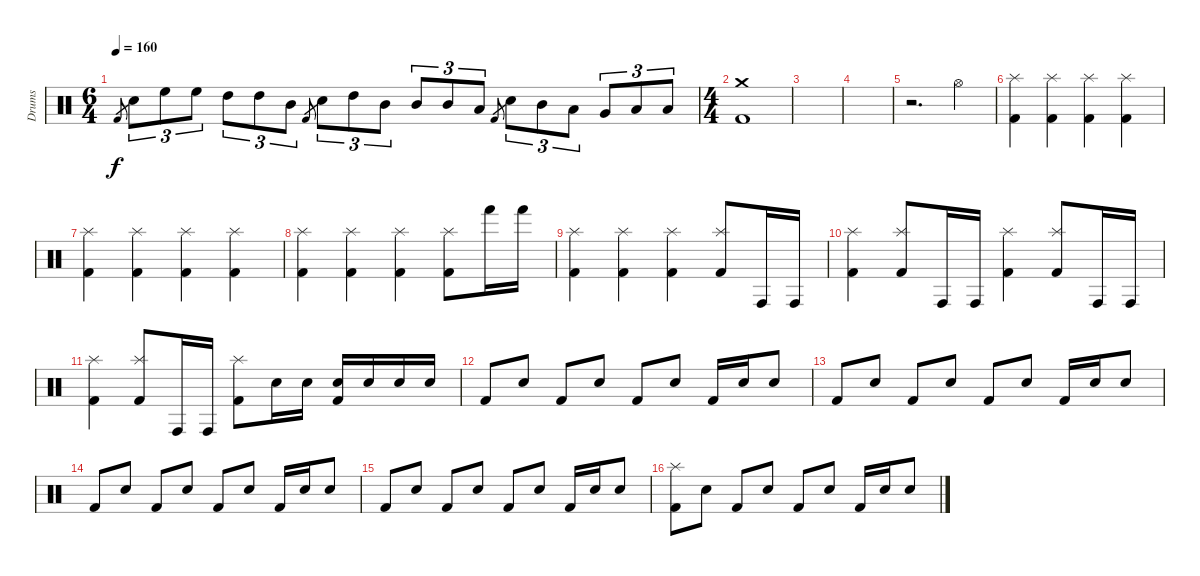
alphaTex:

\track ("Drums" "Drums") {instrument percussion}
\staff {score}
\articulation defaults
\ts (6 4)
\tempo 160
\clef neutral
\ks c "Kick (hit) 2".8{gr dy f} "Snare (hit) 2".8{tu (3 2)} "High Floor Tom (hit)".8{tu (3 2)} "High Floor Tom (hit)".8{tu (3 2)} "High Tom (hit)".8{tu (3 2)} "High Tom (hit)".8{tu (3 2)} "Mid Tom (hit)".8{tu (3 2)} "Kick (hit) 2".8{gr} "Snare (hit) 2".8{tu (3 2)} "High Tom (hit)".8{tu (3 2)} "Mid Tom (hit)".8{tu (3 2)} "Mid Tom (hit)".8{tu (3 2)} "Mid Tom (hit)".8{tu (3 2)} "Low Tom (hit)".8{tu (3 2)} "Kick (hit) 2".8{gr} "Snare (hit) 2".8{tu (3 2)} "Mid Tom (hit)".8{tu (3 2)} "Low Tom (hit)".8{tu (3 2)} "Very Low Tom (hit)".8{tu (3 2)} "Low Floor Tom (hit)".8{tu (3 2)} "Low Floor Tom (hit)".8{tu (3 2)}
|
\ts (4 4)
("Crash medium (hit)" "Kick (hit) 2").1 |
|
|
r.2{d} "Hi-Hat (open)".4 |
("Splash (hit)" "Kick (hit) 2").4 ("Splash (hit)" "Kick (hit) 2").4 ("Splash (hit)" "Kick (hit) 2").4 ("Splash (hit)" "Kick (hit) 2").4 |
("Splash (hit)" "Kick (hit) 2").4 ("Splash (hit)" "Kick (hit) 2").4 ("Splash (hit)" "Kick (hit) 2").4 ("Splash (hit)" "Kick (hit) 2").4 |
("Splash (hit)" "Kick (hit) 2").4 ("Splash (hit)" "Kick (hit) 2").4 ("Splash (hit)" "Kick (hit) 2").4 ("Splash (hit)" "Kick (hit) 2").8 "Hand (hit)".16 "Hand (hit)".16 |
("Splash (hit)" "Kick (hit) 2").4 ("Splash (hit)" "Kick (hit) 2").4 ("Splash (hit)" "Kick (hit) 2").4 ("Splash (hit)" "Kick (hit) 2").8 "Conga high (hit)".16 "Conga high (hit)".16 |
("Splash (hit)" "Kick (hit) 2").4 ("Splash (hit)" "Kick (hit) 2").8 "Conga high (hit)".16 "Conga high (hit)".16 ("Splash (hit)" "Kick (hit) 2").4 ("Splash (hit)" "Kick (hit) 2").8 "Conga high (hit)".16 "Conga high (hit)".16 |
("Splash (hit)" "Kick (hit) 2").4 ("Splash (hit)" "Kick (hit) 2").8 "Conga high (hit)".16 "Conga high (hit)".16 ("Splash (hit)" "Kick (hit) 2").8 "Snare (hit) 2".16 "Snare (hit) 2".16 ("Snare (hit) 2" "Kick (hit) 2").16 "Snare (hit) 2".16 "Snare (hit) 2".16 "Snare (hit) 2".16 |
"Kick (hit) 2".8 "Snare (hit) 2".8 "Kick (hit) 2".8 "Snare (hit) 2".8 "Kick (hit) 2".8 "Snare (hit) 2".8 "Kick (hit) 2".16 "Snare (hit) 2".16 "Snare (hit) 2".8 |
"Kick (hit) 2".8 "Snare (hit) 2".8 "Kick (hit) 2".8 "Snare (hit) 2".8 "Kick (hit) 2".8 "Snare (hit) 2".8 "Kick (hit) 2".16 "Snare (hit) 2".16 "Snare (hit) 2".8 |
"Kick (hit) 2".8 "Snare (hit) 2".8 "Kick (hit) 2".8 "Snare (hit) 2".8 "Kick (hit) 2".8 "Snare (hit) 2".8 "Kick (hit) 2".16 "Snare (hit) 2".16 "Snare (hit) 2".8 |
"Kick (hit) 2".8 "Snare (hit) 2".8 "Kick (hit) 2".8 "Snare (hit) 2".8 "Kick (hit) 2".8 "Snare (hit) 2".8 "Kick (hit) 2".16 "Snare (hit) 2".16 "Snare (hit) 2".8 |
("Splash (hit)" "Kick (hit) 2").8 "Snare (hit) 2".8 "Kick (hit) 2".8 "Snare (hit) 2".8 "Kick (hit) 2".8 "Snare (hit) 2".8 "Kick (hit) 2".16 "Snare (hit) 2".16 "Snare (hit) 2".8
